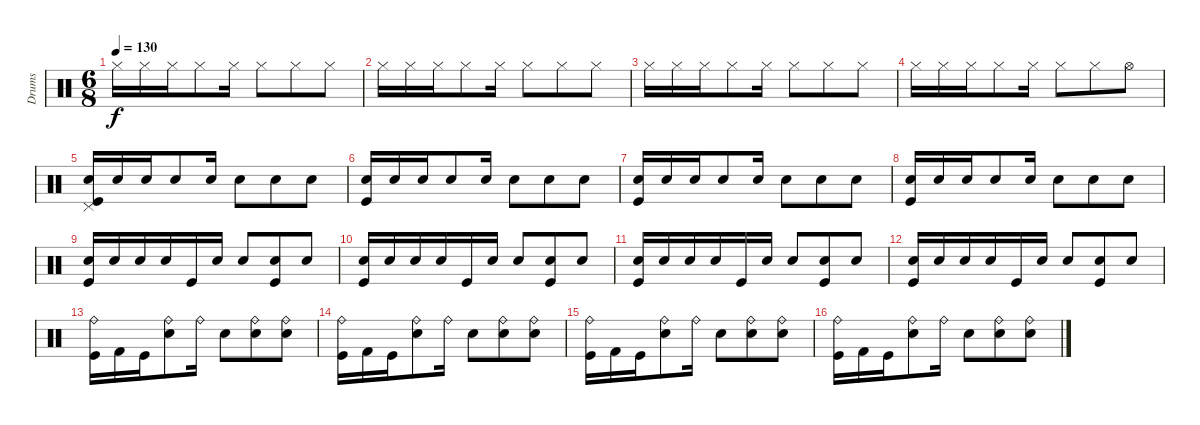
\track ("Drums" "Drums") {instrument percussion}
\staff {score}
\articulation defaults
\ts (6 8)
\tempo 130
\clef neutral
\ks c "Hi-Hat (closed)".16{dy f} "Hi-Hat (closed)".16 "Hi-Hat (closed)".16 "Hi-Hat (closed)".8 "Hi-Hat (closed)".16 "Hi-Hat (closed)".8 "Hi-Hat (closed)".8 "Hi-Hat (closed)".8
|
"Hi-Hat (closed)".16 "Hi-Hat (closed)".16 "Hi-Hat (closed)".16 "Hi-Hat (closed)".8 "Hi-Hat (closed)".16 "Hi-Hat (closed)".8 "Hi-Hat (closed)".8 "Hi-Hat (closed)".8 |
"Hi-Hat (closed)".16 "Hi-Hat (closed)".16 "Hi-Hat (closed)".16 "Hi-Hat (closed)".8 "Hi-Hat (closed)".16 "Hi-Hat (closed)".8 "Hi-Hat (closed)".8 "Hi-Hat (closed)".8 |
"Hi-Hat (closed)".16 "Hi-Hat (closed)".16 "Hi-Hat (closed)".16 "Hi-Hat (closed)".8 "Hi-Hat (closed)".16 "Hi-Hat (closed)".8 "Hi-Hat (closed)".8 "Hi-Hat (open)".8 |
("Pedal Hi-Hat (hit)" "Kick (hit)" "Snare (hit) 2").16 "Snare (hit) 2".16 "Snare (hit) 2".16 "Snare (hit) 2".8 "Snare (hit) 2".16 "Snare (hit) 2".8 "Snare (hit) 2".8 "Snare (hit) 2".8 |
("Kick (hit)" "Snare (hit) 2").16 "Snare (hit) 2".16 "Snare (hit) 2".16 "Snare (hit) 2".8 "Snare (hit) 2".16 "Snare (hit) 2".8 "Snare (hit) 2".8 "Snare (hit) 2".8 |
("Kick (hit)" "Snare (hit) 2").16 "Snare (hit) 2".16 "Snare (hit) 2".16 "Snare (hit) 2".8 "Snare (hit) 2".16 "Snare (hit) 2".8 "Snare (hit) 2".8 "Snare (hit) 2".8 |
("Kick (hit)" "Snare (hit) 2").16 "Snare (hit) 2".16 "Snare (hit) 2".16 "Snare (hit) 2".8 "Snare (hit) 2".16 "Snare (hit) 2".8 "Snare (hit) 2".8 "Snare (hit) 2".8 |
("Kick (hit)" "Snare (hit) 2").16 "Snare (hit) 2".16 "Snare (hit) 2".16 "Snare (hit) 2".16 "Kick (hit)".16 "Snare (hit) 2".16 "Snare (hit) 2".8 ("Snare (hit) 2" "Kick (hit)").8 "Snare (hit) 2".8 |
("Kick (hit)" "Snare (hit) 2").16 "Snare (hit) 2".16 "Snare (hit) 2".16 "Snare (hit) 2".16 "Kick (hit)".16 "Snare (hit) 2".16 "Snare (hit) 2".8 ("Snare (hit) 2" "Kick (hit)").8 "Snare (hit) 2".8 |
("Kick (hit)" "Snare (hit) 2").16 "Snare (hit) 2".16 "Snare (hit) 2".16 "Snare (hit) 2".16 "Kick (hit)".16 "Snare (hit) 2".16 "Snare (hit) 2".8 ("Snare (hit) 2" "Kick (hit)").8 "Snare (hit) 2".8 |
("Kick (hit)" "Snare (hit) 2").16 "Snare (hit) 2".16 "Snare (hit) 2".16 "Snare (hit) 2".16 "Kick (hit)".16 "Snare (hit) 2".16 "Snare (hit) 2".8 ("Snare (hit) 2" "Kick (hit)").8 "Snare (hit) 2".8 |
("Ride (bell)" "Kick (hit)").16 "Kick (hit) 2".16 "Kick (hit)".16 ("Ride (bell)" "Snare (hit) 2").8 "Ride (bell)".16 "Snare (hit) 2".8 ("Ride (bell)" "Snare (hit) 2").8 ("Ride (bell)" "Snare (hit) 2").8 |
("Ride (bell)" "Kick (hit)").16 "Kick (hit) 2".16 "Kick (hit)".16 ("Ride (bell)" "Snare (hit) 2").8 "Ride (bell)".16 "Snare (hit) 2".8 ("Ride (bell)" "Snare (hit) 2").8 ("Ride (bell)" "Snare (hit) 2").8 |
("Ride (bell)" "Kick (hit)").16 "Kick (hit) 2".16 "Kick (hit)".16 ("Ride (bell)" "Snare (hit) 2").8 "Ride (bell)".16 "Snare (hit) 2".8 ("Ride (bell)" "Snare (hit) 2").8 ("Ride (bell)" "Snare (hit) 2").8 |
("Ride (bell)" "Kick (hit)").16 "Kick (hit) 2".16 "Kick (hit)".16 ("Ride (bell)" "Snare (hit) 2").8 "Ride (bell)".16 "Snare (hit) 2".8 ("Ride (bell)" "Snare (hit) 2").8 ("Ride (bell)" "Snare (hit) 2").8
